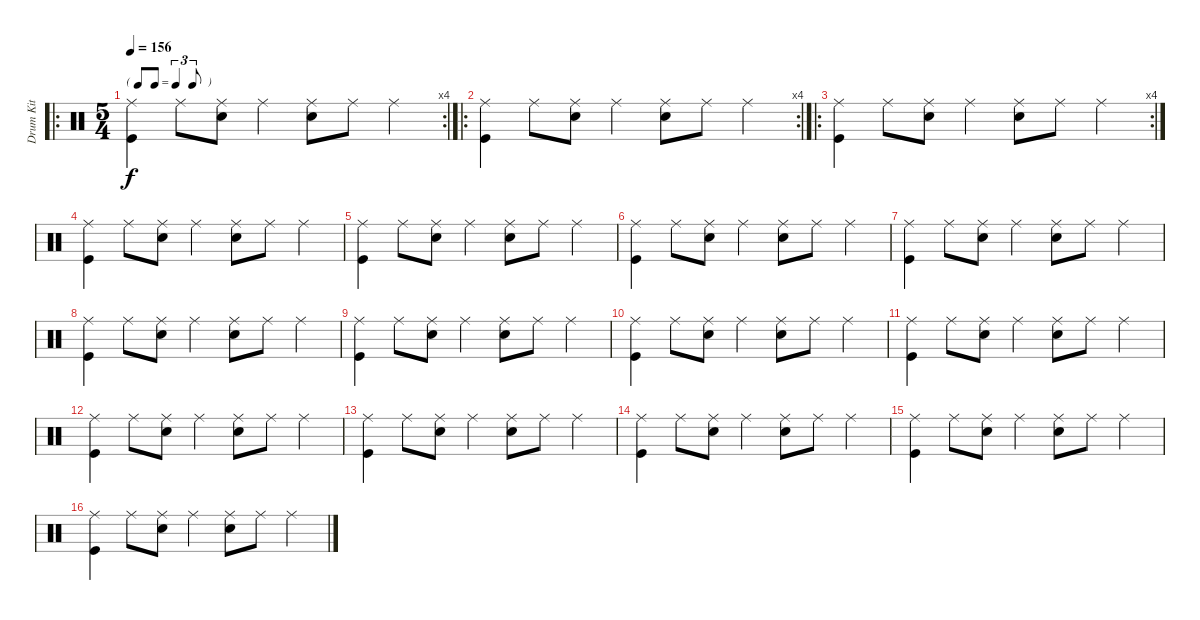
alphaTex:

\track ("Drum Kit" "Drum Kit") {instrument percussion}
\staff {score}
\articulation defaults
\ro
\rc 4
\ts (5 4)
\tf triplet8th
\tempo 156
\clef neutral
\ks c
("Ride (middle)" "Kick (hit)").4{dy f} "Ride (middle)".8 ("Ride (middle)" "Snare (hit) 2").8 "Ride (middle)".4 ("Ride (middle)" "Snare (hit) 2").8 "Ride (middle)".8 "Ride (middle)".4 |
\ro
\rc 4
("Ride (middle)" "Kick (hit)").4 "Ride (middle)".8 ("Ride (middle)" "Snare (hit) 2").8 "Ride (middle)".4 ("Ride (middle)" "Snare (hit) 2").8 "Ride (middle)".8 "Ride (middle)".4 |
\ro
\rc 4
("Ride (middle)" "Kick (hit)").4 "Ride (middle)".8 ("Ride (middle)" "Snare (hit) 2").8 "Ride (middle)".4 ("Ride (middle)" "Snare (hit) 2").8 "Ride (middle)".8 "Ride (middle)".4 |
("Ride (middle)" "Kick (hit)").4 "Ride (middle)".8 ("Ride (middle)" "Snare (hit) 2").8 "Ride (middle)".4 ("Ride (middle)" "Snare (hit) 2").8 "Ride (middle)".8 "Ride (middle)".4 |
("Ride (middle)" "Kick (hit)").4 "Ride (middle)".8 ("Ride (middle)" "Snare (hit) 2").8 "Ride (middle)".4 ("Ride (middle)" "Snare (hit) 2").8 "Ride (middle)".8 "Ride (middle)".4 |
("Ride (middle)" "Kick (hit)").4 "Ride (middle)".8 ("Ride (middle)" "Snare (hit) 2").8 "Ride (middle)".4 ("Ride (middle)" "Snare (hit) 2").8 "Ride (middle)".8 "Ride (middle)".4 |
("Ride (middle)" "Kick (hit)").4 "Ride (middle)".8 ("Ride (middle)" "Snare (hit) 2").8 "Ride (middle)".4 ("Ride (middle)" "Snare (hit) 2").8 "Ride (middle)".8 "Ride (middle)".4 |
("Ride (middle)" "Kick (hit)").4 "Ride (middle)".8 ("Ride (middle)" "Snare (hit) 2").8 "Ride (middle)".4 ("Ride (middle)" "Snare (hit) 2").8 "Ride (middle)".8 "Ride (middle)".4 |
("Ride (middle)" "Kick (hit)").4 "Ride (middle)".8 ("Ride (middle)" "Snare (hit) 2").8 "Ride (middle)".4 ("Ride (middle)" "Snare (hit) 2").8 "Ride (middle)".8 "Ride (middle)".4 |
("Ride (middle)" "Kick (hit)").4 "Ride (middle)".8 ("Ride (middle)" "Snare (hit) 2").8 "Ride (middle)".4 ("Ride (middle)" "Snare (hit) 2").8 "Ride (middle)".8 "Ride (middle)".4 |
("Ride (middle)" "Kick (hit)").4 "Ride (middle)".8 ("Ride (middle)" "Snare (hit) 2").8 "Ride (middle)".4 ("Ride (middle)" "Snare (hit) 2").8 "Ride (middle)".8 "Ride (middle)".4 |
("Ride (middle)" "Kick (hit)").4 "Ride (middle)".8 ("Ride (middle)" "Snare (hit) 2").8 "Ride (middle)".4 ("Ride (middle)" "Snare (hit) 2").8 "Ride (middle)".8 "Ride (middle)".4 |
("Ride (middle)" "Kick (hit)").4 "Ride (middle)".8 ("Ride (middle)" "Snare (hit) 2").8 "Ride (middle)".4 ("Ride (middle)" "Snare (hit) 2").8 "Ride (middle)".8 "Ride (middle)".4 |
("Ride (middle)" "Kick (hit)").4 "Ride (middle)".8 ("Ride (middle)" "Snare (hit) 2").8 "Ride (middle)".4 ("Ride (middle)" "Snare (hit) 2").8 "Ride (middle)".8 "Ride (middle)".4 |
("Ride (middle)" "Kick (hit)").4 "Ride (middle)".8 ("Ride (middle)" "Snare (hit) 2").8 "Ride (middle)".4 ("Ride (middle)" "Snare (hit) 2").8 "Ride (middle)".8 "Ride (middle)".4 |
("Ride (middle)" "Kick (hit)").4 "Ride (middle)".8 ("Ride (middle)" "Snare (hit) 2").8 "Ride (middle)".4 ("Ride (middle)" "Snare (hit) 2").8 "Ride (middle)".8 "Ride (middle)".4
